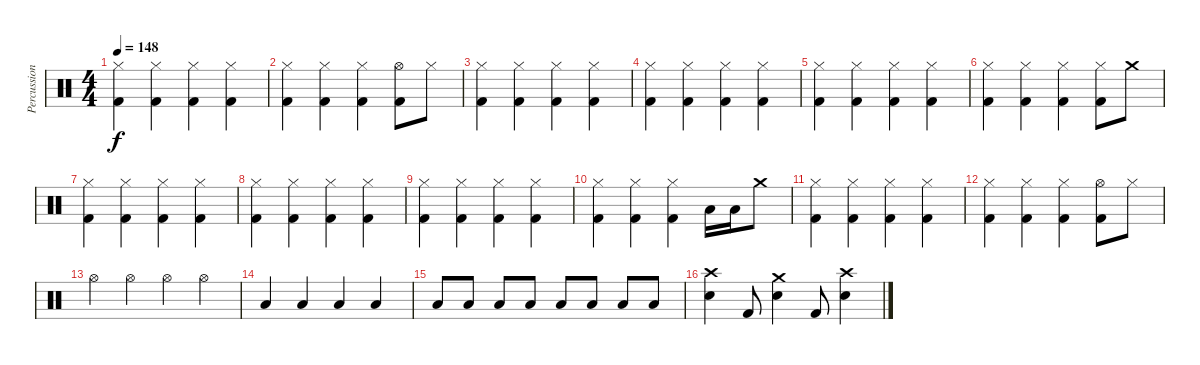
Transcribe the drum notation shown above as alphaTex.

\track ("Percussion" "Percussion") {instrument percussion}
\staff {score}
\articulation defaults
\ts (4 4)
\tempo 148
\clef neutral
\ks c
("Hi-Hat (closed)" "Kick (hit) 2").4{dy f} ("Hi-Hat (closed)" "Kick (hit) 2").4 ("Hi-Hat (closed)" "Kick (hit) 2").4 ("Hi-Hat (closed)" "Kick (hit) 2").4 |
("Hi-Hat (closed)" "Kick (hit) 2").4 ("Hi-Hat (closed)" "Kick (hit) 2").4 ("Hi-Hat (closed)" "Kick (hit) 2").4 ("Hi-Hat (open)" "Kick (hit) 2").8 "Hi-Hat (closed)".8 |
("Hi-Hat (closed)" "Kick (hit) 2").4 ("Hi-Hat (closed)" "Kick (hit) 2").4 ("Hi-Hat (closed)" "Kick (hit) 2").4 ("Hi-Hat (closed)" "Kick (hit) 2").4 |
("Hi-Hat (closed)" "Kick (hit) 2").4 ("Hi-Hat (closed)" "Kick (hit) 2").4 ("Hi-Hat (closed)" "Kick (hit) 2").4 ("Hi-Hat (closed)" "Kick (hit) 2").4 |
("Hi-Hat (closed)" "Kick (hit) 2").4 ("Hi-Hat (closed)" "Kick (hit) 2").4 ("Hi-Hat (closed)" "Kick (hit) 2").4 ("Hi-Hat (closed)" "Kick (hit) 2").4 |
("Hi-Hat (closed)" "Kick (hit) 2").4 ("Hi-Hat (closed)" "Kick (hit) 2").4 ("Hi-Hat (closed)" "Kick (hit) 2").4 ("Hi-Hat (closed)" "Kick (hit) 2").8 "Crash medium (hit)".8 |
("Hi-Hat (closed)" "Kick (hit) 2").4 ("Hi-Hat (closed)" "Kick (hit) 2").4 ("Hi-Hat (closed)" "Kick (hit) 2").4 ("Hi-Hat (closed)" "Kick (hit) 2").4 |
("Hi-Hat (closed)" "Kick (hit) 2").4 ("Hi-Hat (closed)" "Kick (hit) 2").4 ("Hi-Hat (closed)" "Kick (hit) 2").4 ("Hi-Hat (closed)" "Kick (hit) 2").4 |
("Hi-Hat (closed)" "Kick (hit) 2").4 ("Hi-Hat (closed)" "Kick (hit) 2").4 ("Hi-Hat (closed)" "Kick (hit) 2").4 ("Hi-Hat (closed)" "Kick (hit) 2").4 |
("Hi-Hat (closed)" "Kick (hit) 2").4 ("Hi-Hat (closed)" "Kick (hit) 2").4 ("Hi-Hat (closed)" "Kick (hit) 2").4 "Low Floor Tom (hit)".16 "Low Floor Tom (hit)".16 "Crash medium (hit)".8 |
("Hi-Hat (closed)" "Kick (hit) 2").4 ("Hi-Hat (closed)" "Kick (hit) 2").4 ("Hi-Hat (closed)" "Kick (hit) 2").4 ("Hi-Hat (closed)" "Kick (hit) 2").4 |
("Hi-Hat (closed)" "Kick (hit) 2").4 ("Hi-Hat (closed)" "Kick (hit) 2").4 ("Hi-Hat (closed)" "Kick (hit) 2").4 ("Hi-Hat (open)" "Kick (hit) 2").8 "Hi-Hat (closed)".8 |
"Hi-Hat (open)".4 "Hi-Hat (open)".4 "Hi-Hat (open)".4 "Hi-Hat (open)".4 |
"Low Floor Tom (hit)".4 "Low Floor Tom (hit)".4 "Low Floor Tom (hit)".4 "Low Floor Tom (hit)".4 |
"Low Floor Tom (hit)".8 "Low Floor Tom (hit)".8 "Low Floor Tom (hit)".8 "Low Floor Tom (hit)".8 "Low Floor Tom (hit)".8 "Low Floor Tom (hit)".8 "Low Floor Tom (hit)".8 "Low Floor Tom (hit)".8 |
("Crash high (hit)" "Snare (hit) 2").4 "Kick (hit) 2".8 ("Crash medium (hit)" "Snare (hit) 2").4 "Kick (hit) 2".8 ("Crash high (hit)" "Snare (hit) 2").4
